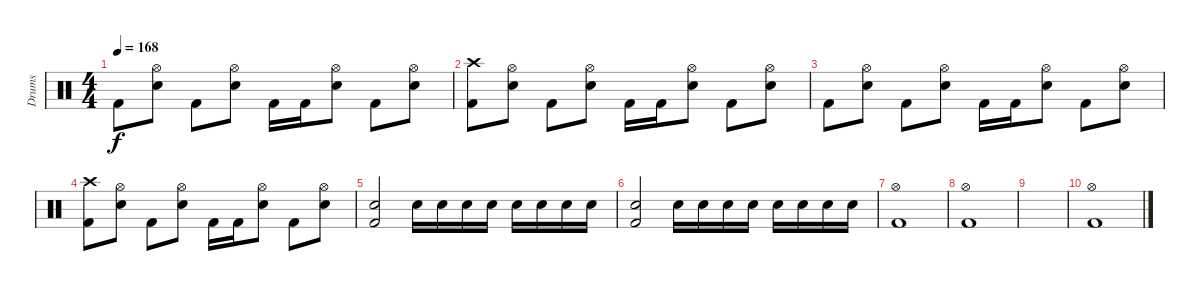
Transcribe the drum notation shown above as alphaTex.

\track ("Drums" "Drums") {instrument percussion}
\staff {score}
\articulation defaults
\ts (4 4)
\tempo 168
\clef neutral
\ks c "Kick (hit) 2".8{dy f}
("Snare (hit) 2" "Hi-Hat (open)").8 "Kick (hit) 2".8 ("Snare (hit) 2" "Hi-Hat (open)").8 "Kick (hit) 2".16 "Kick (hit) 2".16 ("Snare (hit) 2" "Hi-Hat (open)").8 "Kick (hit) 2".8 ("Snare (hit) 2" "Hi-Hat (open)").8 |
("Kick (hit) 2" "Crash high (hit)").8 ("Snare (hit) 2" "Hi-Hat (open)").8 "Kick (hit) 2".8 ("Snare (hit) 2" "Hi-Hat (open)").8 "Kick (hit) 2".16 "Kick (hit) 2".16 ("Snare (hit) 2" "Hi-Hat (open)").8 "Kick (hit) 2".8 ("Snare (hit) 2" "Hi-Hat (open)").8 |
"Kick (hit) 2".8 ("Snare (hit) 2" "Hi-Hat (open)").8 "Kick (hit) 2".8 ("Snare (hit) 2" "Hi-Hat (open)").8 "Kick (hit) 2".16 "Kick (hit) 2".16 ("Snare (hit) 2" "Hi-Hat (open)").8 "Kick (hit) 2".8 ("Snare (hit) 2" "Hi-Hat (open)").8 |
("Kick (hit) 2" "Crash high (hit)").8 ("Snare (hit) 2" "Hi-Hat (open)").8 "Kick (hit) 2".8 ("Snare (hit) 2" "Hi-Hat (open)").8 "Kick (hit) 2".16 "Kick (hit) 2".16 ("Snare (hit) 2" "Hi-Hat (open)").8 "Kick (hit) 2".8 ("Snare (hit) 2" "Hi-Hat (open)").8 |
("Kick (hit) 2" "Snare (hit) 2").2 "Snare (hit) 2".16 "Snare (hit) 2".16 "Snare (hit) 2".16 "Snare (hit) 2".16 "Snare (hit) 2".16 "Snare (hit) 2".16 "Snare (hit) 2".16 "Snare (hit) 2".16 |
("Kick (hit) 2" "Snare (hit) 2").2 "Snare (hit) 2".16 "Snare (hit) 2".16 "Snare (hit) 2".16 "Snare (hit) 2".16 "Snare (hit) 2".16 "Snare (hit) 2".16 "Snare (hit) 2".16 "Snare (hit) 2".16 |
("Kick (hit) 2" "Hi-Hat (open)").1 |
("Kick (hit) 2" "Hi-Hat (open)").1 |
|
("Kick (hit) 2" "Hi-Hat (open)").1
